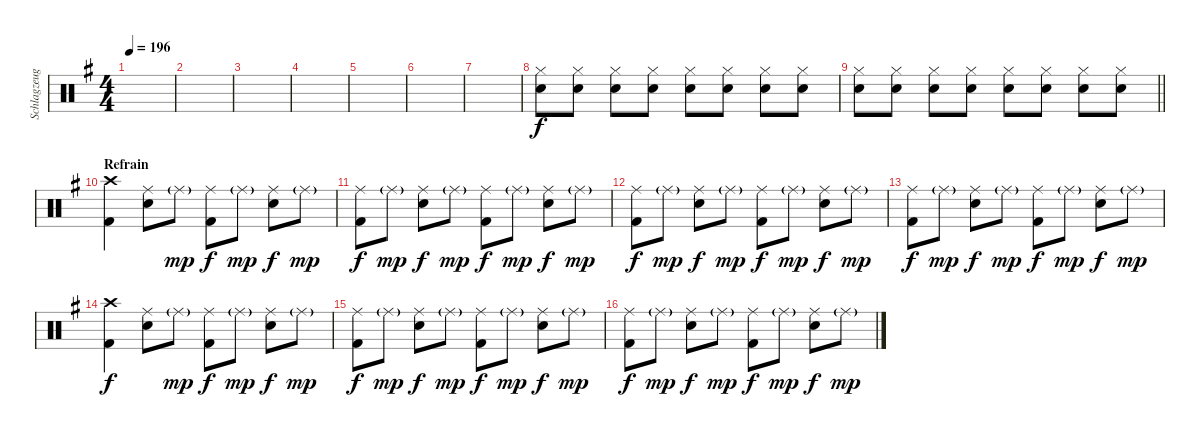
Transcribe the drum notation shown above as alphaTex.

\track ("Schlagzeug" "Schlagzeug") {instrument percussion}
\staff {score}
\articulation defaults
\ts (4 4)
\tempo 196
\clef neutral
\ks g
|
|
|
|
|
|
|
("Hi-Hat (closed)" "Snare (hit) 2").8{volume 14} ("Hi-Hat (closed)" "Snare (hit) 2").8 ("Hi-Hat (closed)" "Snare (hit) 2").8 ("Hi-Hat (closed)" "Snare (hit) 2").8 ("Hi-Hat (closed)" "Snare (hit) 2").8 ("Hi-Hat (closed)" "Snare (hit) 2").8 ("Hi-Hat (closed)" "Snare (hit) 2").8 ("Hi-Hat (closed)" "Snare (hit) 2").8 |
\barLineRight lightlight
("Hi-Hat (closed)" "Snare (hit) 2").8 ("Hi-Hat (closed)" "Snare (hit) 2").8 ("Hi-Hat (closed)" "Snare (hit) 2").8 ("Hi-Hat (closed)" "Snare (hit) 2").8 ("Hi-Hat (closed)" "Snare (hit) 2").8 ("Hi-Hat (closed)" "Snare (hit) 2").8 ("Hi-Hat (closed)" "Snare (hit) 2").8 ("Hi-Hat (closed)" "Snare (hit) 2").8 |
\section ("" "Refrain")
("Crash high (hit)" "Kick (hit) 2").4 ("Ride (middle)" "Snare (hit) 2").8 "Ride (middle)"{g}.8{dy mp} ("Ride (middle)" "Kick (hit) 2").8{dy f} "Ride (middle)"{g}.8{dy mp} ("Ride (middle)" "Snare (hit) 2").8{dy f} "Ride (middle)"{g}.8{dy mp} |
("Ride (middle)" "Kick (hit) 2").8{dy f} "Ride (middle)"{g}.8{dy mp} ("Ride (middle)" "Snare (hit) 2").8{dy f} "Ride (middle)"{g}.8{dy mp} ("Ride (middle)" "Kick (hit) 2").8{dy f} "Ride (middle)"{g}.8{dy mp} ("Ride (middle)" "Snare (hit) 2").8{dy f} "Ride (middle)"{g}.8{dy mp} |
("Ride (middle)" "Kick (hit) 2").8{dy f} "Ride (middle)"{g}.8{dy mp} ("Ride (middle)" "Snare (hit) 2").8{dy f} "Ride (middle)"{g}.8{dy mp} ("Ride (middle)" "Kick (hit) 2").8{dy f} "Ride (middle)"{g}.8{dy mp} ("Ride (middle)" "Snare (hit) 2").8{dy f} "Ride (middle)"{g}.8{dy mp} |
("Ride (middle)" "Kick (hit) 2").8{dy f} "Ride (middle)"{g}.8{dy mp} ("Ride (middle)" "Snare (hit) 2").8{dy f} "Ride (middle)"{g}.8{dy mp} ("Ride (middle)" "Kick (hit) 2").8{dy f} "Ride (middle)"{g}.8{dy mp} ("Ride (middle)" "Snare (hit) 2").8{dy f} "Ride (middle)"{g}.8{dy mp} |
("Crash high (hit)" "Kick (hit) 2").4{dy f} ("Ride (middle)" "Snare (hit) 2").8 "Ride (middle)"{g}.8{dy mp} ("Ride (middle)" "Kick (hit) 2").8{dy f} "Ride (middle)"{g}.8{dy mp} ("Ride (middle)" "Snare (hit) 2").8{dy f} "Ride (middle)"{g}.8{dy mp} |
("Ride (middle)" "Kick (hit) 2").8{dy f} "Ride (middle)"{g}.8{dy mp} ("Ride (middle)" "Snare (hit) 2").8{dy f} "Ride (middle)"{g}.8{dy mp} ("Ride (middle)" "Kick (hit) 2").8{dy f} "Ride (middle)"{g}.8{dy mp} ("Ride (middle)" "Snare (hit) 2").8{dy f} "Ride (middle)"{g}.8{dy mp} |
("Ride (middle)" "Kick (hit) 2").8{dy f} "Ride (middle)"{g}.8{dy mp} ("Ride (middle)" "Snare (hit) 2").8{dy f} "Ride (middle)"{g}.8{dy mp} ("Ride (middle)" "Kick (hit) 2").8{dy f} "Ride (middle)"{g}.8{dy mp} ("Ride (middle)" "Snare (hit) 2").8{dy f} "Ride (middle)"{g}.8{dy mp}
